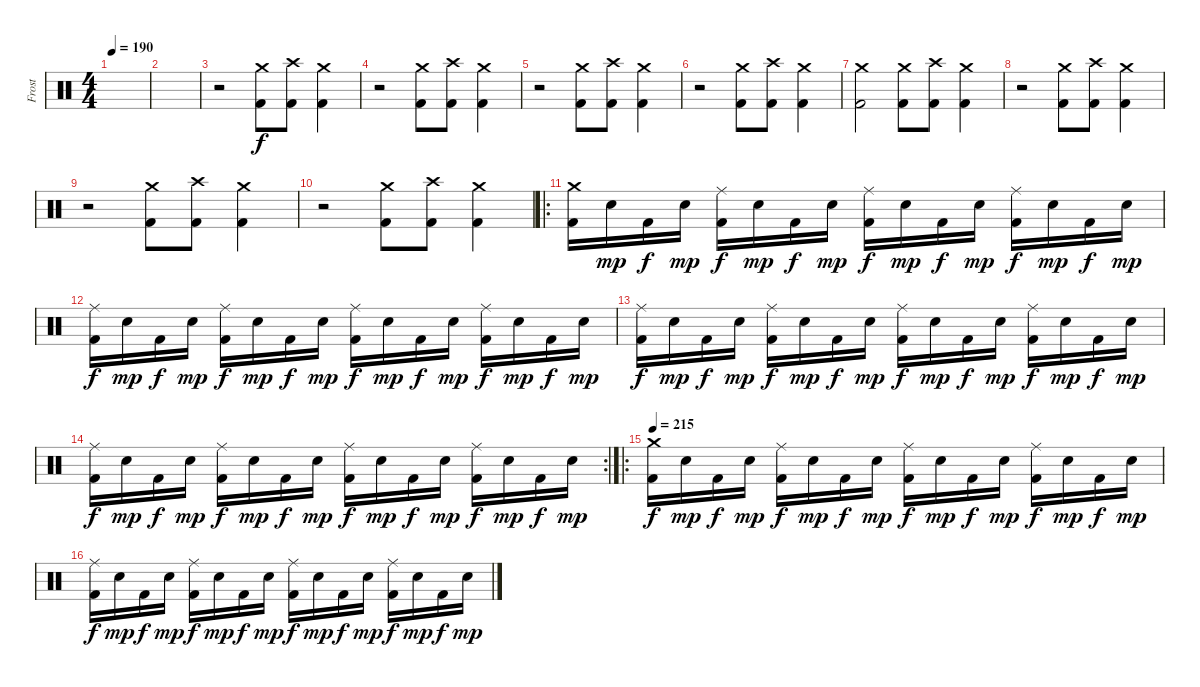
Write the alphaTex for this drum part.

\track ("Frost" "Frost") {instrument percussion}
\staff {score}
\articulation defaults
\ts (4 4)
\tempo 190
\clef neutral
\ks c
|
|
r.2 ("Crash medium (hit)" "Kick (hit) 2").8 ("Crash high (hit)" "Kick (hit) 2").8 ("Crash medium (hit)" "Kick (hit) 2").4 |
r.2 ("Crash medium (hit)" "Kick (hit) 2").8 ("Crash high (hit)" "Kick (hit) 2").8 ("Crash medium (hit)" "Kick (hit) 2").4 |
r.2 ("Crash medium (hit)" "Kick (hit) 2").8 ("Crash high (hit)" "Kick (hit) 2").8 ("Crash medium (hit)" "Kick (hit) 2").4 |
r.2 ("Crash medium (hit)" "Kick (hit) 2").8 ("Crash high (hit)" "Kick (hit) 2").8 ("Crash medium (hit)" "Kick (hit) 2").4 |
("Crash medium (hit)" "Kick (hit) 2").2 ("Crash medium (hit)" "Kick (hit) 2").8 ("Crash high (hit)" "Kick (hit) 2").8 ("Crash medium (hit)" "Kick (hit) 2").4 |
r.2 ("Crash medium (hit)" "Kick (hit) 2").8 ("Crash high (hit)" "Kick (hit) 2").8 ("Crash medium (hit)" "Kick (hit) 2").4 |
r.2 ("Crash medium (hit)" "Kick (hit) 2").8 ("Crash high (hit)" "Kick (hit) 2").8 ("Crash medium (hit)" "Kick (hit) 2").4 |
r.2 ("Crash medium (hit)" "Kick (hit) 2").8 ("Crash high (hit)" "Kick (hit) 2").8 ("Crash medium (hit)" "Kick (hit) 2").4 |
\ro
("Crash medium (hit)" "Kick (hit) 2").16 "Electric Snare (hit)".16{dy mp} "Kick (hit) 2".16{dy f} "Electric Snare (hit)".16{dy mp} ("Ride (middle)" "Kick (hit) 2").16{dy f} "Electric Snare (hit)".16{dy mp} "Kick (hit) 2".16{dy f} "Electric Snare (hit)".16{dy mp} ("Ride (middle)" "Kick (hit) 2").16{dy f} "Electric Snare (hit)".16{dy mp} "Kick (hit) 2".16{dy f} "Electric Snare (hit)".16{dy mp} ("Ride (middle)" "Kick (hit) 2").16{dy f} "Electric Snare (hit)".16{dy mp} "Kick (hit) 2".16{dy f} "Electric Snare (hit)".16{dy mp} |
("Ride (middle)" "Kick (hit) 2").16{dy f} "Electric Snare (hit)".16{dy mp} "Kick (hit) 2".16{dy f} "Electric Snare (hit)".16{dy mp} ("Ride (middle)" "Kick (hit) 2").16{dy f} "Electric Snare (hit)".16{dy mp} "Kick (hit) 2".16{dy f} "Electric Snare (hit)".16{dy mp} ("Ride (middle)" "Kick (hit) 2").16{dy f} "Electric Snare (hit)".16{dy mp} "Kick (hit) 2".16{dy f} "Electric Snare (hit)".16{dy mp} ("Ride (middle)" "Kick (hit) 2").16{dy f} "Electric Snare (hit)".16{dy mp} "Kick (hit) 2".16{dy f} "Electric Snare (hit)".16{dy mp} |
("Ride (middle)" "Kick (hit) 2").16{dy f} "Electric Snare (hit)".16{dy mp} "Kick (hit) 2".16{dy f} "Electric Snare (hit)".16{dy mp} ("Ride (middle)" "Kick (hit) 2").16{dy f} "Electric Snare (hit)".16{dy mp} "Kick (hit) 2".16{dy f} "Electric Snare (hit)".16{dy mp} ("Ride (middle)" "Kick (hit) 2").16{dy f} "Electric Snare (hit)".16{dy mp} "Kick (hit) 2".16{dy f} "Electric Snare (hit)".16{dy mp} ("Ride (middle)" "Kick (hit) 2").16{dy f} "Electric Snare (hit)".16{dy mp} "Kick (hit) 2".16{dy f} "Electric Snare (hit)".16{dy mp} |
\rc 2
("Ride (middle)" "Kick (hit) 2").16{dy f} "Electric Snare (hit)".16{dy mp} "Kick (hit) 2".16{dy f} "Electric Snare (hit)".16{dy mp} ("Ride (middle)" "Kick (hit) 2").16{dy f} "Electric Snare (hit)".16{dy mp} "Kick (hit) 2".16{dy f} "Electric Snare (hit)".16{dy mp} ("Ride (middle)" "Kick (hit) 2").16{dy f} "Electric Snare (hit)".16{dy mp} "Kick (hit) 2".16{dy f} "Electric Snare (hit)".16{dy mp} ("Ride (middle)" "Kick (hit) 2").16{dy f} "Electric Snare (hit)".16{dy mp} "Kick (hit) 2".16{dy f} "Electric Snare (hit)".16{dy mp} |
\ro
\tempo 215
("Crash medium (hit)" "Kick (hit) 2").16{dy f} "Electric Snare (hit)".16{dy mp} "Kick (hit) 2".16{dy f} "Electric Snare (hit)".16{dy mp} ("Ride (middle)" "Kick (hit) 2").16{dy f} "Electric Snare (hit)".16{dy mp} "Kick (hit) 2".16{dy f} "Electric Snare (hit)".16{dy mp} ("Ride (middle)" "Kick (hit) 2").16{dy f} "Electric Snare (hit)".16{dy mp} "Kick (hit) 2".16{dy f} "Electric Snare (hit)".16{dy mp} ("Ride (middle)" "Kick (hit) 2").16{dy f} "Electric Snare (hit)".16{dy mp} "Kick (hit) 2".16{dy f} "Electric Snare (hit)".16{dy mp} |
("Ride (middle)" "Kick (hit) 2").16{dy f} "Electric Snare (hit)".16{dy mp} "Kick (hit) 2".16{dy f} "Electric Snare (hit)".16{dy mp} ("Ride (middle)" "Kick (hit) 2").16{dy f} "Electric Snare (hit)".16{dy mp} "Kick (hit) 2".16{dy f} "Electric Snare (hit)".16{dy mp} ("Ride (middle)" "Kick (hit) 2").16{dy f} "Electric Snare (hit)".16{dy mp} "Kick (hit) 2".16{dy f} "Electric Snare (hit)".16{dy mp} ("Ride (middle)" "Kick (hit) 2").16{dy f} "Electric Snare (hit)".16{dy mp} "Kick (hit) 2".16{dy f} "Electric Snare (hit)".16{dy mp}
